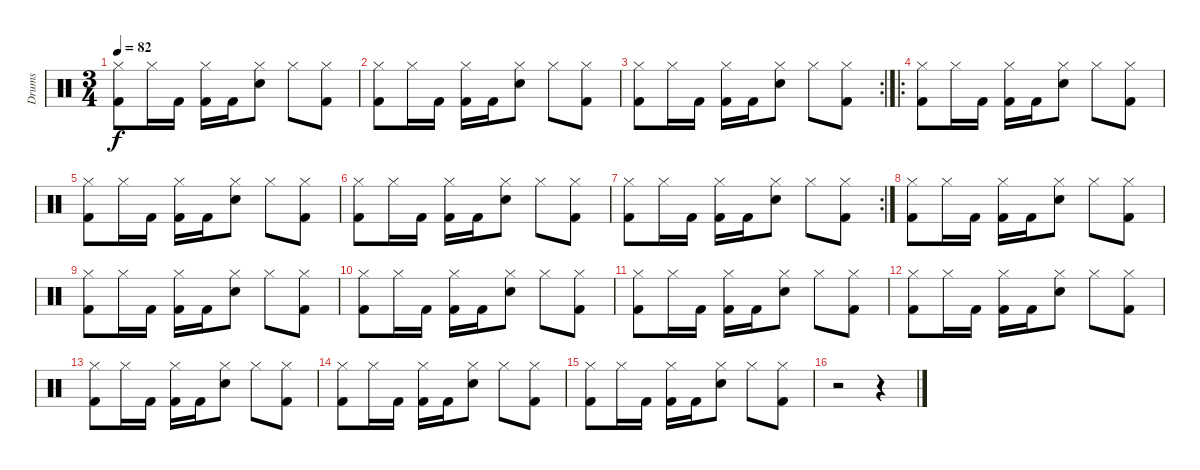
\track ("Drums" "Drums") {instrument percussion}
\staff {score}
\articulation defaults
\ts (3 4)
\tempo 82
\clef neutral
\ks c
("Hi-Hat (closed)" "Kick (hit) 2").8{dy f} "Hi-Hat (closed)".16 "Kick (hit) 2".16 ("Hi-Hat (closed)" "Kick (hit) 2").16 "Kick (hit) 2".16 ("Hi-Hat (closed)" "Snare (hit) 2").8 "Hi-Hat (closed)".8 ("Hi-Hat (closed)" "Kick (hit) 2").8 |
("Hi-Hat (closed)" "Kick (hit) 2").8 "Hi-Hat (closed)".16 "Kick (hit) 2".16 ("Hi-Hat (closed)" "Kick (hit) 2").16 "Kick (hit) 2".16 ("Hi-Hat (closed)" "Snare (hit) 2").8 "Hi-Hat (closed)".8 ("Hi-Hat (closed)" "Kick (hit) 2").8 |
\rc 2
("Hi-Hat (closed)" "Kick (hit) 2").8 "Hi-Hat (closed)".16 "Kick (hit) 2".16 ("Hi-Hat (closed)" "Kick (hit) 2").16 "Kick (hit) 2".16 ("Hi-Hat (closed)" "Snare (hit) 2").8 "Hi-Hat (closed)".8 ("Hi-Hat (closed)" "Kick (hit) 2").8 |
\ro
("Hi-Hat (closed)" "Kick (hit) 2").8 "Hi-Hat (closed)".16 "Kick (hit) 2".16 ("Hi-Hat (closed)" "Kick (hit) 2").16 "Kick (hit) 2".16 ("Hi-Hat (closed)" "Snare (hit) 2").8 "Hi-Hat (closed)".8 ("Hi-Hat (closed)" "Kick (hit) 2").8 |
("Hi-Hat (closed)" "Kick (hit) 2").8 "Hi-Hat (closed)".16 "Kick (hit) 2".16 ("Hi-Hat (closed)" "Kick (hit) 2").16 "Kick (hit) 2".16 ("Hi-Hat (closed)" "Snare (hit) 2").8 "Hi-Hat (closed)".8 ("Hi-Hat (closed)" "Kick (hit) 2").8 |
("Hi-Hat (closed)" "Kick (hit) 2").8 "Hi-Hat (closed)".16 "Kick (hit) 2".16 ("Hi-Hat (closed)" "Kick (hit) 2").16 "Kick (hit) 2".16 ("Hi-Hat (closed)" "Snare (hit) 2").8 "Hi-Hat (closed)".8 ("Hi-Hat (closed)" "Kick (hit) 2").8 |
\rc 2
("Hi-Hat (closed)" "Kick (hit) 2").8 "Hi-Hat (closed)".16 "Kick (hit) 2".16 ("Hi-Hat (closed)" "Kick (hit) 2").16 "Kick (hit) 2".16 ("Hi-Hat (closed)" "Snare (hit) 2").8 "Hi-Hat (closed)".8 ("Hi-Hat (closed)" "Kick (hit) 2").8 |
("Hi-Hat (closed)" "Kick (hit) 2").8{volume 0} "Hi-Hat (closed)".16 "Kick (hit) 2".16 ("Hi-Hat (closed)" "Kick (hit) 2").16 "Kick (hit) 2".16 ("Hi-Hat (closed)" "Snare (hit) 2").8 "Hi-Hat (closed)".8 ("Hi-Hat (closed)" "Kick (hit) 2").8 |
("Hi-Hat (closed)" "Kick (hit) 2").8 "Hi-Hat (closed)".16 "Kick (hit) 2".16 ("Hi-Hat (closed)" "Kick (hit) 2").16 "Kick (hit) 2".16 ("Hi-Hat (closed)" "Snare (hit) 2").8 "Hi-Hat (closed)".8 ("Hi-Hat (closed)" "Kick (hit) 2").8 |
("Hi-Hat (closed)" "Kick (hit) 2").8 "Hi-Hat (closed)".16 "Kick (hit) 2".16 ("Hi-Hat (closed)" "Kick (hit) 2").16 "Kick (hit) 2".16 ("Hi-Hat (closed)" "Snare (hit) 2").8 "Hi-Hat (closed)".8 ("Hi-Hat (closed)" "Kick (hit) 2").8 |
("Hi-Hat (closed)" "Kick (hit) 2").8 "Hi-Hat (closed)".16 "Kick (hit) 2".16 ("Hi-Hat (closed)" "Kick (hit) 2").16 "Kick (hit) 2".16 ("Hi-Hat (closed)" "Snare (hit) 2").8 "Hi-Hat (closed)".8 ("Hi-Hat (closed)" "Kick (hit) 2").8 |
("Hi-Hat (closed)" "Kick (hit) 2").8 "Hi-Hat (closed)".16 "Kick (hit) 2".16 ("Hi-Hat (closed)" "Kick (hit) 2").16 "Kick (hit) 2".16 ("Hi-Hat (closed)" "Snare (hit) 2").8 "Hi-Hat (closed)".8 ("Hi-Hat (closed)" "Kick (hit) 2").8 |
("Hi-Hat (closed)" "Kick (hit) 2").8 "Hi-Hat (closed)".16 "Kick (hit) 2".16 ("Hi-Hat (closed)" "Kick (hit) 2").16 "Kick (hit) 2".16 ("Hi-Hat (closed)" "Snare (hit) 2").8 "Hi-Hat (closed)".8 ("Hi-Hat (closed)" "Kick (hit) 2").8 |
("Hi-Hat (closed)" "Kick (hit) 2").8 "Hi-Hat (closed)".16 "Kick (hit) 2".16 ("Hi-Hat (closed)" "Kick (hit) 2").16 "Kick (hit) 2".16 ("Hi-Hat (closed)" "Snare (hit) 2").8 "Hi-Hat (closed)".8 ("Hi-Hat (closed)" "Kick (hit) 2").8 |
("Hi-Hat (closed)" "Kick (hit) 2").8 "Hi-Hat (closed)".16 "Kick (hit) 2".16 ("Hi-Hat (closed)" "Kick (hit) 2").16 "Kick (hit) 2".16 ("Hi-Hat (closed)" "Snare (hit) 2").8 "Hi-Hat (closed)".8 ("Hi-Hat (closed)" "Kick (hit) 2").8 |
r.2 r.4
